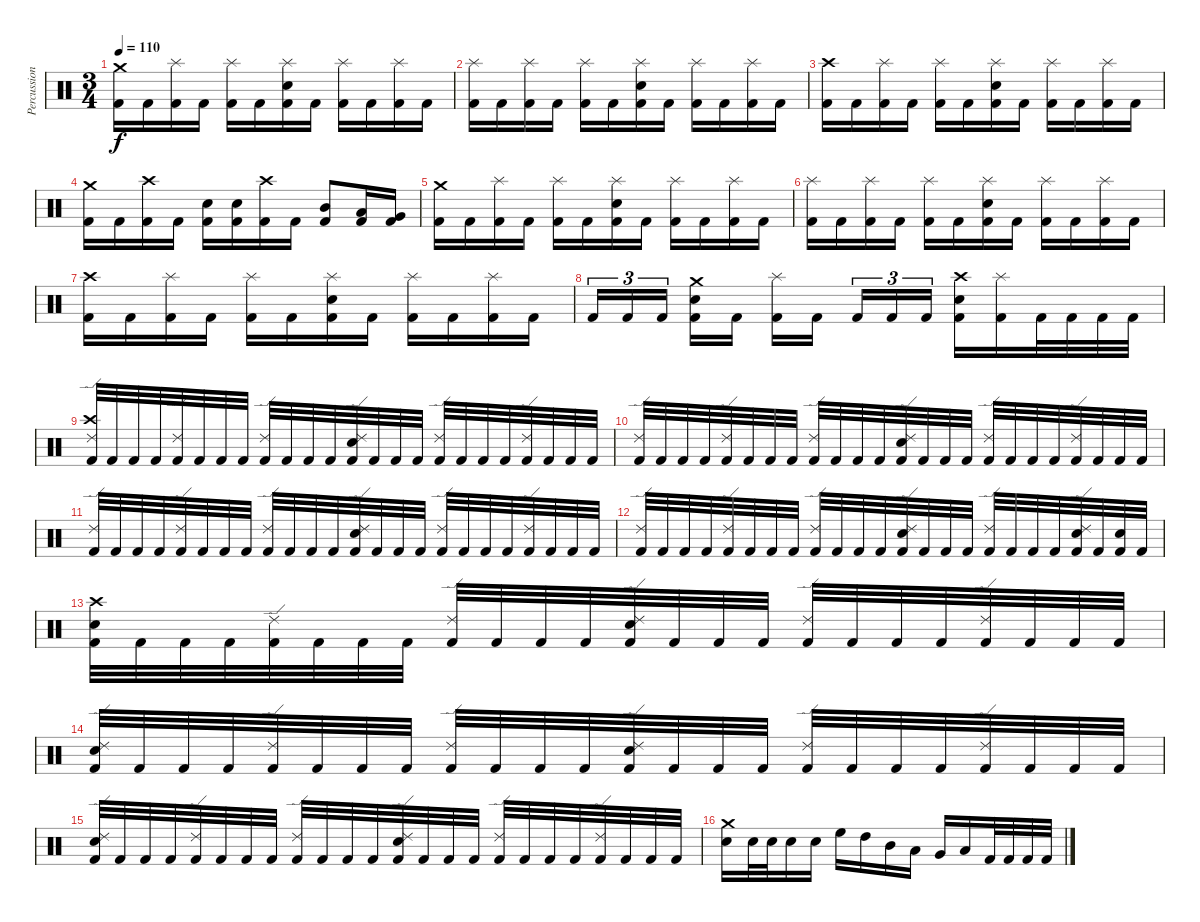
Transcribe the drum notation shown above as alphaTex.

\track ("Percussion" "Percussion") {instrument percussion}
\staff {score}
\articulation defaults
\ts (3 4)
\tempo 110
\clef neutral
\ks c
("Crash medium (hit)" "Kick (hit) 2").16{dy f} "Kick (hit) 2".16 ("Splash (hit)" "Kick (hit) 2").16 "Kick (hit) 2".16 ("Splash (hit)" "Kick (hit) 2").16 "Kick (hit) 2".16 ("Splash (hit)" "Electric Snare (hit)" "Kick (hit) 2").16 "Kick (hit) 2".16 ("Splash (hit)" "Kick (hit) 2").16 "Kick (hit) 2".16 ("Splash (hit)" "Kick (hit) 2").16 "Kick (hit) 2".16 |
("Splash (hit)" "Kick (hit) 2").16 "Kick (hit) 2".16 ("Splash (hit)" "Kick (hit) 2").16 "Kick (hit) 2".16 ("Splash (hit)" "Kick (hit) 2").16 "Kick (hit) 2".16 ("Splash (hit)" "Electric Snare (hit)" "Kick (hit) 2").16 "Kick (hit) 2".16 ("Splash (hit)" "Kick (hit) 2").16 "Kick (hit) 2".16 ("Splash (hit)" "Kick (hit) 2").16 "Kick (hit) 2".16 |
("Crash high (hit)" "Kick (hit) 2").16 "Kick (hit) 2".16 ("Splash (hit)" "Kick (hit) 2").16 "Kick (hit) 2".16 ("Splash (hit)" "Kick (hit) 2").16 "Kick (hit) 2".16 ("Splash (hit)" "Electric Snare (hit)" "Kick (hit) 2").16 "Kick (hit) 2".16 ("Splash (hit)" "Kick (hit) 2").16 "Kick (hit) 2".16 ("Splash (hit)" "Kick (hit) 2").16 "Kick (hit) 2".16 |
("Crash medium (hit)" "Kick (hit) 2").16 "Kick (hit) 2".16 ("Crash high (hit)" "Kick (hit) 2").16 "Kick (hit) 2".16 ("Electric Snare (hit)" "Kick (hit) 2").16 ("Electric Snare (hit)" "Kick (hit) 2").16 ("Crash high (hit)" "Kick (hit) 2").16 "Kick (hit) 2".16 ("Mid Tom (hit)" "Kick (hit) 2").8 ("Low Tom (hit)" "Kick (hit) 2").16 ("Very Low Tom (hit)" "Kick (hit) 2").16 |
("Crash medium (hit)" "Kick (hit) 2").16 "Kick (hit) 2".16 ("Splash (hit)" "Kick (hit) 2").16 "Kick (hit) 2".16 ("Splash (hit)" "Kick (hit) 2").16 "Kick (hit) 2".16 ("Splash (hit)" "Electric Snare (hit)" "Kick (hit) 2").16 "Kick (hit) 2".16 ("Splash (hit)" "Kick (hit) 2").16 "Kick (hit) 2".16 ("Splash (hit)" "Kick (hit) 2").16 "Kick (hit) 2".16 |
("Splash (hit)" "Kick (hit) 2").16 "Kick (hit) 2".16 ("Splash (hit)" "Kick (hit) 2").16 "Kick (hit) 2".16 ("Splash (hit)" "Kick (hit) 2").16 "Kick (hit) 2".16 ("Splash (hit)" "Electric Snare (hit)" "Kick (hit) 2").16 "Kick (hit) 2".16 ("Splash (hit)" "Kick (hit) 2").16 "Kick (hit) 2".16 ("Splash (hit)" "Kick (hit) 2").16 "Kick (hit) 2".16 |
("Crash high (hit)" "Kick (hit) 2").16 "Kick (hit) 2".16 ("Splash (hit)" "Kick (hit) 2").16 "Kick (hit) 2".16 ("Splash (hit)" "Kick (hit) 2").16 "Kick (hit) 2".16 ("Splash (hit)" "Electric Snare (hit)" "Kick (hit) 2").16 "Kick (hit) 2".16 ("Splash (hit)" "Kick (hit) 2").16 "Kick (hit) 2".16 ("Splash (hit)" "Kick (hit) 2").16 "Kick (hit) 2".16 |
"Kick (hit) 2".16{tu (3 2)} "Kick (hit) 2".16{tu (3 2)} "Kick (hit) 2".16{tu (3 2)} ("Crash medium (hit)" "Electric Snare (hit)" "Kick (hit) 2").16 "Kick (hit) 2".16 ("Splash (hit)" "Kick (hit) 2").16 "Kick (hit) 2".16 "Kick (hit) 2".16{tu (3 2)} "Kick (hit) 2".16{tu (3 2)} "Kick (hit) 2".16{tu (3 2)} ("Crash high (hit)" "Electric Snare (hit)" "Kick (hit) 2").16 ("Splash (hit)" "Kick (hit) 2").16 "Kick (hit) 2".32 "Kick (hit) 2".32 "Kick (hit) 2".32 "Kick (hit) 2".32 |
("Crash high (hit)" "Ride (edge) 2" "Kick (hit) 2").32 "Kick (hit) 2".32 "Kick (hit) 2".32 "Kick (hit) 2".32 ("Ride (edge) 2" "Kick (hit) 2").32 "Kick (hit) 2".32 "Kick (hit) 2".32 "Kick (hit) 2".32 ("Ride (edge) 2" "Kick (hit) 2").32 "Kick (hit) 2".32 "Kick (hit) 2".32 "Kick (hit) 2".32 ("Ride (edge) 2" "Electric Snare (hit)" "Kick (hit) 2").32 "Kick (hit) 2".32 "Kick (hit) 2".32 "Kick (hit) 2".32 ("Ride (edge) 2" "Kick (hit) 2").32 "Kick (hit) 2".32 "Kick (hit) 2".32 "Kick (hit) 2".32 ("Ride (edge) 2" "Kick (hit) 2").32 "Kick (hit) 2".32 "Kick (hit) 2".32 "Kick (hit) 2".32 |
("Ride (edge) 2" "Kick (hit) 2").32 "Kick (hit) 2".32 "Kick (hit) 2".32 "Kick (hit) 2".32 ("Ride (edge) 2" "Kick (hit) 2").32 "Kick (hit) 2".32 "Kick (hit) 2".32 "Kick (hit) 2".32 ("Ride (edge) 2" "Kick (hit) 2").32 "Kick (hit) 2".32 "Kick (hit) 2".32 "Kick (hit) 2".32 ("Ride (edge) 2" "Electric Snare (hit)" "Kick (hit) 2").32 "Kick (hit) 2".32 "Kick (hit) 2".32 "Kick (hit) 2".32 ("Ride (edge) 2" "Kick (hit) 2").32 "Kick (hit) 2".32 "Kick (hit) 2".32 "Kick (hit) 2".32 ("Ride (edge) 2" "Kick (hit) 2").32 "Kick (hit) 2".32 "Kick (hit) 2".32 "Kick (hit) 2".32 |
("Ride (edge) 2" "Kick (hit) 2").32 "Kick (hit) 2".32 "Kick (hit) 2".32 "Kick (hit) 2".32 ("Ride (edge) 2" "Kick (hit) 2").32 "Kick (hit) 2".32 "Kick (hit) 2".32 "Kick (hit) 2".32 ("Ride (edge) 2" "Kick (hit) 2").32 "Kick (hit) 2".32 "Kick (hit) 2".32 "Kick (hit) 2".32 ("Ride (edge) 2" "Electric Snare (hit)" "Kick (hit) 2").32 "Kick (hit) 2".32 "Kick (hit) 2".32 "Kick (hit) 2".32 ("Ride (edge) 2" "Kick (hit) 2").32 "Kick (hit) 2".32 "Kick (hit) 2".32 "Kick (hit) 2".32 ("Ride (edge) 2" "Kick (hit) 2").32 "Kick (hit) 2".32 "Kick (hit) 2".32 "Kick (hit) 2".32 |
("Ride (edge) 2" "Kick (hit) 2").32 "Kick (hit) 2".32 "Kick (hit) 2".32 "Kick (hit) 2".32 ("Ride (edge) 2" "Kick (hit) 2").32 "Kick (hit) 2".32 "Kick (hit) 2".32 "Kick (hit) 2".32 ("Ride (edge) 2" "Kick (hit) 2").32 "Kick (hit) 2".32 "Kick (hit) 2".32 "Kick (hit) 2".32 ("Ride (edge) 2" "Electric Snare (hit)" "Kick (hit) 2").32 "Kick (hit) 2".32 "Kick (hit) 2".32 "Kick (hit) 2".32 ("Ride (edge) 2" "Kick (hit) 2").32 "Kick (hit) 2".32 "Kick (hit) 2".32 "Kick (hit) 2".32 ("Ride (edge) 2" "Electric Snare (hit)" "Kick (hit) 2").32 "Kick (hit) 2".32 ("Electric Snare (hit)" "Kick (hit) 2").32 "Kick (hit) 2".32 |
("Crash high (hit)" "Electric Snare (hit)" "Kick (hit) 2").32 "Kick (hit) 2".32 "Kick (hit) 2".32 "Kick (hit) 2".32 ("Ride (edge) 2" "Kick (hit) 2").32 "Kick (hit) 2".32 "Kick (hit) 2".32 "Kick (hit) 2".32 ("Ride (edge) 2" "Kick (hit) 2").32 "Kick (hit) 2".32 "Kick (hit) 2".32 "Kick (hit) 2".32 ("Ride (edge) 2" "Electric Snare (hit)" "Kick (hit) 2").32 "Kick (hit) 2".32 "Kick (hit) 2".32 "Kick (hit) 2".32 ("Ride (edge) 2" "Kick (hit) 2").32 "Kick (hit) 2".32 "Kick (hit) 2".32 "Kick (hit) 2".32 ("Ride (edge) 2" "Kick (hit) 2").32 "Kick (hit) 2".32 "Kick (hit) 2".32 "Kick (hit) 2".32 |
("Ride (edge) 2" "Electric Snare (hit)" "Kick (hit) 2").32 "Kick (hit) 2".32 "Kick (hit) 2".32 "Kick (hit) 2".32 ("Ride (edge) 2" "Kick (hit) 2").32 "Kick (hit) 2".32 "Kick (hit) 2".32 "Kick (hit) 2".32 ("Ride (edge) 2" "Kick (hit) 2").32 "Kick (hit) 2".32 "Kick (hit) 2".32 "Kick (hit) 2".32 ("Ride (edge) 2" "Electric Snare (hit)" "Kick (hit) 2").32 "Kick (hit) 2".32 "Kick (hit) 2".32 "Kick (hit) 2".32 ("Ride (edge) 2" "Kick (hit) 2").32 "Kick (hit) 2".32 "Kick (hit) 2".32 "Kick (hit) 2".32 ("Ride (edge) 2" "Kick (hit) 2").32 "Kick (hit) 2".32 "Kick (hit) 2".32 "Kick (hit) 2".32 |
("Ride (edge) 2" "Electric Snare (hit)" "Kick (hit) 2").32 "Kick (hit) 2".32 "Kick (hit) 2".32 "Kick (hit) 2".32 ("Ride (edge) 2" "Kick (hit) 2").32 "Kick (hit) 2".32 "Kick (hit) 2".32 "Kick (hit) 2".32 ("Ride (edge) 2" "Kick (hit) 2").32 "Kick (hit) 2".32 "Kick (hit) 2".32 "Kick (hit) 2".32 ("Ride (edge) 2" "Electric Snare (hit)" "Kick (hit) 2").32 "Kick (hit) 2".32 "Kick (hit) 2".32 "Kick (hit) 2".32 ("Ride (edge) 2" "Kick (hit) 2").32 "Kick (hit) 2".32 "Kick (hit) 2".32 "Kick (hit) 2".32 ("Ride (edge) 2" "Kick (hit) 2").32 "Kick (hit) 2".32 "Kick (hit) 2".32 "Kick (hit) 2".32 |
("Crash medium (hit)" "Electric Snare (hit)").16 "Electric Snare (hit)".32 "Electric Snare (hit)".32 "Electric Snare (hit)".16 "Electric Snare (hit)".16 "High Floor Tom (hit)".16 "High Tom (hit)".16 "Mid Tom (hit)".16 "Low Tom (hit)".16 "Very Low Tom (hit)".16 "Low Floor Tom (hit)".16 "Kick (hit) 2".32 "Kick (hit) 2".32 "Kick (hit) 2".32 "Kick (hit) 2".32
